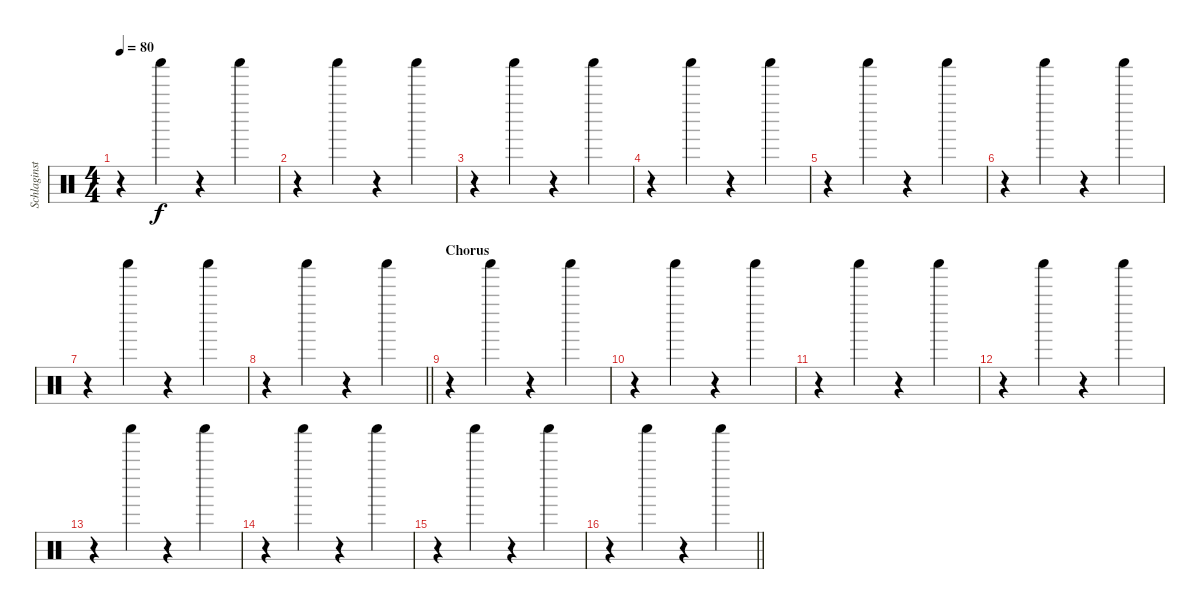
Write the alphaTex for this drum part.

\track ("Schlaginstrumente - Auswahl" "Schlaginst") {instrument percussion}
\staff {score}
\articulation defaults
\ts (4 4)
\tempo 80
\clef neutral
\ks c
r.4{dy f} "Shaker (hit)".4 r.4 "Shaker (hit)".4 |
r.4 "Shaker (hit)".4 r.4 "Shaker (hit)".4 |
r.4 "Shaker (hit)".4 r.4 "Shaker (hit)".4 |
r.4 "Shaker (hit)".4 r.4 "Shaker (hit)".4 |
r.4 "Shaker (hit)".4 r.4 "Shaker (hit)".4 |
r.4 "Shaker (hit)".4 r.4 "Shaker (hit)".4 |
r.4 "Shaker (hit)".4 r.4 "Shaker (hit)".4 |
\barLineRight lightlight
r.4 "Shaker (hit)".4 r.4 "Shaker (hit)".4 |
\section ("" "Chorus")
r.4 "Shaker (hit)".4 r.4 "Shaker (hit)".4 |
r.4 "Shaker (hit)".4 r.4 "Shaker (hit)".4 |
r.4 "Shaker (hit)".4 r.4 "Shaker (hit)".4 |
r.4 "Shaker (hit)".4 r.4 "Shaker (hit)".4 |
r.4 "Shaker (hit)".4 r.4 "Shaker (hit)".4 |
r.4 "Shaker (hit)".4 r.4 "Shaker (hit)".4 |
r.4 "Shaker (hit)".4 r.4 "Shaker (hit)".4 |
\barLineRight lightlight
r.4 "Shaker (hit)".4 r.4 "Shaker (hit)".4
